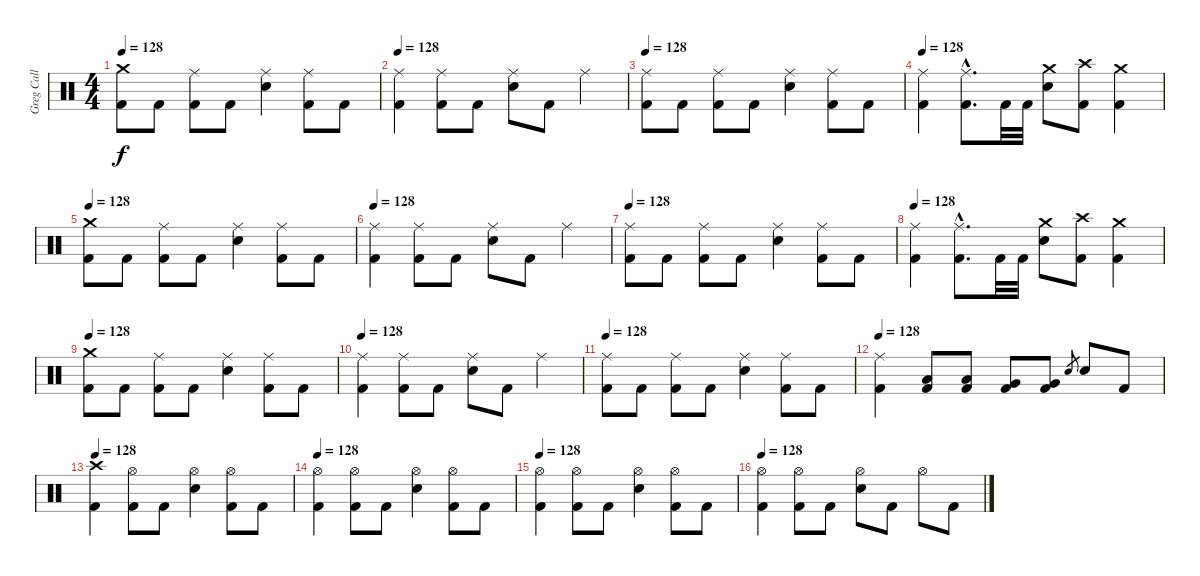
\track ("Greg Call (Drums)" "Greg Call ") {instrument percussion}
\staff {score}
\articulation defaults
\ts (4 4)
\tempo 128
\clef neutral
\ks c
("Crash medium (hit)" "Kick (hit) 2").8{dy f} "Kick (hit) 2".8 ("Ride (middle)" "Kick (hit) 2").8 "Kick (hit) 2".8 ("Ride (middle)" "Snare (hit) 2").4 ("Ride (middle)" "Kick (hit) 2").8 "Kick (hit) 2".8 |
\tempo 128
("Ride (middle)" "Kick (hit) 2").4 ("Ride (middle)" "Kick (hit) 2").8 "Kick (hit) 2".8 ("Ride (middle)" "Snare (hit) 2").8 "Kick (hit) 2".8 "Ride (middle)".4 |
\tempo 128
("Ride (middle)" "Kick (hit) 2").8 "Kick (hit) 2".8 ("Ride (middle)" "Kick (hit) 2").8 "Kick (hit) 2".8 ("Ride (middle)" "Snare (hit) 2").4 ("Ride (middle)" "Kick (hit) 2").8 "Kick (hit) 2".8 |
\tempo 128
("Ride (middle)" "Kick (hit) 2").4 ("Ride (middle)"{hac} "Kick (hit) 2"{hac}).8{d} "Kick (hit) 2".32 "Kick (hit) 2".32 ("Crash medium (hit)" "Snare (hit) 2").8 ("Crash high (hit)" "Kick (hit) 2").8 ("Crash medium (hit)" "Kick (hit) 2").4 |
\tempo 128
("Crash medium (hit)" "Kick (hit) 2").8 "Kick (hit) 2".8 ("Ride (middle)" "Kick (hit) 2").8 "Kick (hit) 2".8 ("Ride (middle)" "Snare (hit) 2").4 ("Ride (middle)" "Kick (hit) 2").8 "Kick (hit) 2".8 |
\tempo 128
("Ride (middle)" "Kick (hit) 2").4 ("Ride (middle)" "Kick (hit) 2").8 "Kick (hit) 2".8 ("Ride (middle)" "Snare (hit) 2").8 "Kick (hit) 2".8 "Ride (middle)".4 |
\tempo 128
("Ride (middle)" "Kick (hit) 2").8 "Kick (hit) 2".8 ("Ride (middle)" "Kick (hit) 2").8 "Kick (hit) 2".8 ("Ride (middle)" "Snare (hit) 2").4 ("Ride (middle)" "Kick (hit) 2").8 "Kick (hit) 2".8 |
\tempo 128
("Ride (middle)" "Kick (hit) 2").4 ("Ride (middle)"{hac} "Kick (hit) 2"{hac}).8{d} "Kick (hit) 2".32 "Kick (hit) 2".32 ("Crash medium (hit)" "Snare (hit) 2").8 ("Crash high (hit)" "Kick (hit) 2").8 ("Crash medium (hit)" "Kick (hit) 2").4 |
\tempo 128
("Crash medium (hit)" "Kick (hit) 2").8 "Kick (hit) 2".8 ("Ride (middle)" "Kick (hit) 2").8 "Kick (hit) 2".8 ("Ride (middle)" "Snare (hit) 2").4 ("Ride (middle)" "Kick (hit) 2").8 "Kick (hit) 2".8 |
\tempo 128
("Ride (middle)" "Kick (hit) 2").4 ("Ride (middle)" "Kick (hit) 2").8 "Kick (hit) 2".8 ("Ride (middle)" "Snare (hit) 2").8 "Kick (hit) 2".8 "Ride (middle)".4 |
\tempo 128
("Ride (middle)" "Kick (hit) 2").8 "Kick (hit) 2".8 ("Ride (middle)" "Kick (hit) 2").8 "Kick (hit) 2".8 ("Ride (middle)" "Snare (hit) 2").4 ("Ride (middle)" "Kick (hit) 2").8 "Kick (hit) 2".8 |
\tempo 128
("Ride (middle)" "Kick (hit) 2").4 ("Kick (hit) 2" "Low Tom (hit)").8 ("Kick (hit) 2" "Low Tom (hit)").8 ("Kick (hit) 2" "Very Low Tom (hit)").8 ("Kick (hit) 2" "Very Low Tom (hit)").8 "Snare (hit) 2".8{gr} "Snare (hit) 2".8 "Kick (hit) 2".8 |
\tempo 128
("Crash high (hit)" "Kick (hit) 2").4 ("Hi-Hat (open)" "Kick (hit) 2").8 "Kick (hit) 2".8 ("Hi-Hat (open)" "Snare (hit) 2").4 ("Hi-Hat (open)" "Kick (hit) 2").8 "Kick (hit) 2".8 |
\tempo 128
("Hi-Hat (open)" "Kick (hit) 2").4 ("Hi-Hat (open)" "Kick (hit) 2").8 "Kick (hit) 2".8 ("Hi-Hat (open)" "Snare (hit) 2").4 ("Hi-Hat (open)" "Kick (hit) 2").8 "Kick (hit) 2".8 |
\tempo 128
("Hi-Hat (open)" "Kick (hit) 2").4 ("Hi-Hat (open)" "Kick (hit) 2").8 "Kick (hit) 2".8 ("Hi-Hat (open)" "Snare (hit) 2").4 ("Hi-Hat (open)" "Kick (hit) 2").8 "Kick (hit) 2".8 |
\tempo 128
("Hi-Hat (open)" "Kick (hit) 2").4 ("Hi-Hat (open)" "Kick (hit) 2").8 "Kick (hit) 2".8 ("Hi-Hat (open)" "Snare (hit) 2").8 "Kick (hit) 2".8 "Hi-Hat (open)".8 "Kick (hit) 2".8
